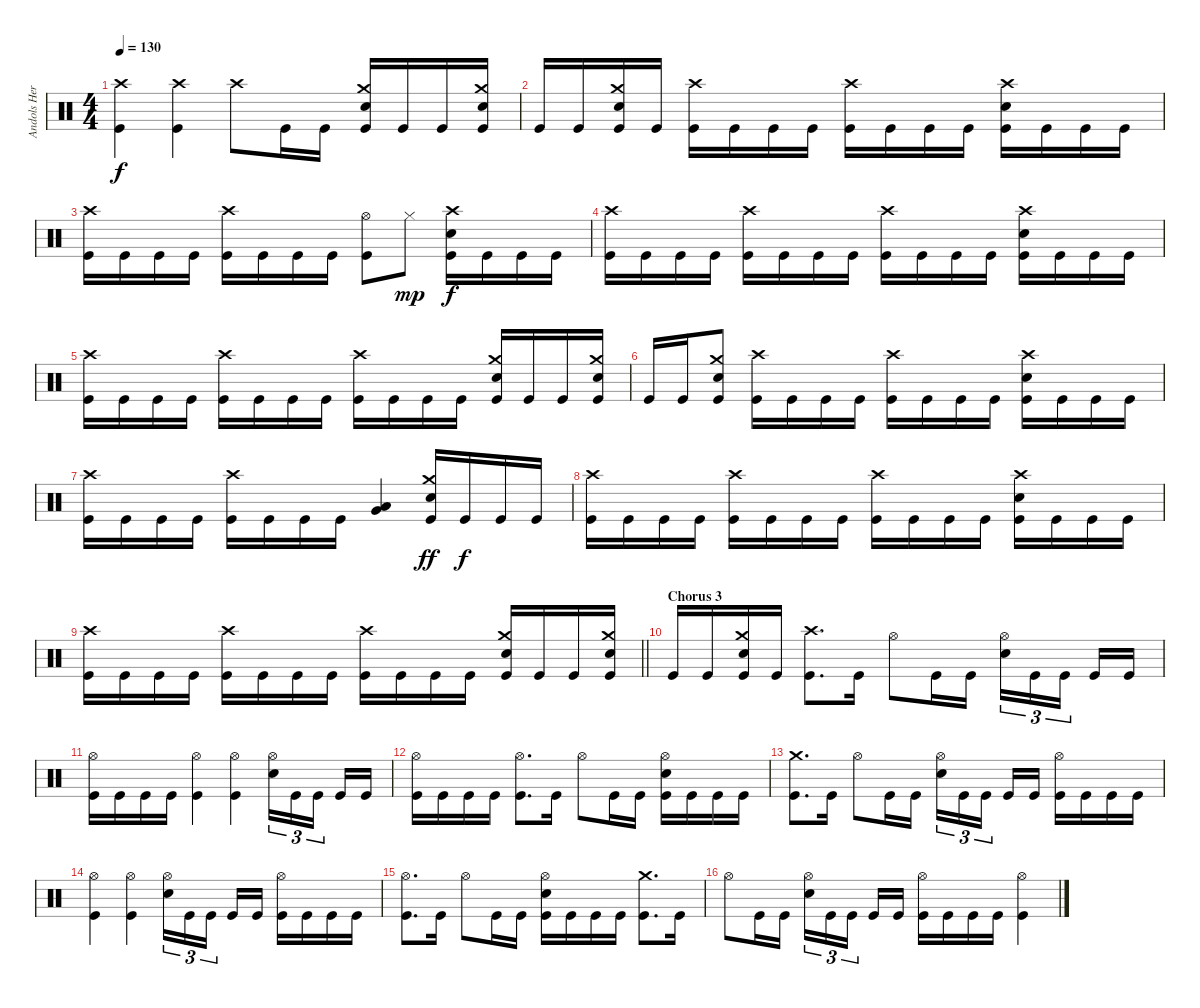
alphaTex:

\track ("Andols Herrick" "Andols Her") {instrument percussion}
\staff {score}
\articulation defaults
\ts (4 4)
\tempo 130
\clef neutral
\ks c
("Crash high (hit)" "Kick (hit)").4{dy f} ("Crash high (hit)" "Kick (hit)").4 "Crash high (hit)".8 "Kick (hit)".16 "Kick (hit)".16 ("Crash medium (hit)" "Electric Snare (hit)" "Kick (hit)").16 "Kick (hit)".16 "Kick (hit)".16 ("Crash medium (hit)" "Electric Snare (hit)" "Kick (hit)").16 |
"Kick (hit)".16 "Kick (hit)".16 ("Crash medium (hit)" "Electric Snare (hit)" "Kick (hit)").16 "Kick (hit)".16 ("Crash high (hit)" "Kick (hit)").16 "Kick (hit)".16 "Kick (hit)".16 "Kick (hit)".16 ("Crash high (hit)" "Kick (hit)").16 "Kick (hit)".16 "Kick (hit)".16 "Kick (hit)".16 ("Crash high (hit)" "Electric Snare (hit)" "Kick (hit)").16 "Kick (hit)".16 "Kick (hit)".16 "Kick (hit)".16 |
("Crash high (hit)" "Kick (hit)").16 "Kick (hit)".16 "Kick (hit)".16 "Kick (hit)".16 ("Crash high (hit)" "Kick (hit)").16 "Kick (hit)".16 "Kick (hit)".16 "Kick (hit)".16 ("Hi-Hat (open)" "Kick (hit)").8 "Hi-Hat (closed)".8{dy mp} ("Crash high (hit)" "Electric Snare (hit)" "Kick (hit)").16{dy f} "Kick (hit)".16 "Kick (hit)".16 "Kick (hit)".16 |
("Crash high (hit)" "Kick (hit)").16 "Kick (hit)".16 "Kick (hit)".16 "Kick (hit)".16 ("Crash high (hit)" "Kick (hit)").16 "Kick (hit)".16 "Kick (hit)".16 "Kick (hit)".16 ("Crash high (hit)" "Kick (hit)").16 "Kick (hit)".16 "Kick (hit)".16 "Kick (hit)".16 ("Crash high (hit)" "Electric Snare (hit)" "Kick (hit)").16 "Kick (hit)".16 "Kick (hit)".16 "Kick (hit)".16 |
("Crash high (hit)" "Kick (hit)").16 "Kick (hit)".16 "Kick (hit)".16 "Kick (hit)".16 ("Crash high (hit)" "Kick (hit)").16 "Kick (hit)".16 "Kick (hit)".16 "Kick (hit)".16 ("Crash high (hit)" "Kick (hit)").16 "Kick (hit)".16 "Kick (hit)".16 "Kick (hit)".16 ("Crash medium (hit)" "Electric Snare (hit)" "Kick (hit)").16 "Kick (hit)".16 "Kick (hit)".16 ("Crash medium (hit)" "Electric Snare (hit)" "Kick (hit)").16 |
"Kick (hit)".16 "Kick (hit)".16 ("Crash medium (hit)" "Electric Snare (hit)" "Kick (hit)").8 ("Crash high (hit)" "Kick (hit)").16 "Kick (hit)".16 "Kick (hit)".16 "Kick (hit)".16 ("Crash high (hit)" "Kick (hit)").16 "Kick (hit)".16 "Kick (hit)".16 "Kick (hit)".16 ("Crash high (hit)" "Electric Snare (hit)" "Kick (hit)").16 "Kick (hit)".16 "Kick (hit)".16 "Kick (hit)".16 |
("Crash high (hit)" "Kick (hit)").16 "Kick (hit)".16 "Kick (hit)".16 "Kick (hit)".16 ("Crash high (hit)" "Kick (hit)").16 "Kick (hit)".16 "Kick (hit)".16 "Kick (hit)".16 ("Very Low Tom (hit)" "Low Floor Tom (hit)").4 ("Crash medium (hit)" "Electric Snare (hit)" "Kick (hit)").16{dy ff} "Kick (hit)".16{dy f} "Kick (hit)".16 "Kick (hit)".16 |
("Crash high (hit)" "Kick (hit)").16 "Kick (hit)".16 "Kick (hit)".16 "Kick (hit)".16 ("Crash high (hit)" "Kick (hit)").16 "Kick (hit)".16 "Kick (hit)".16 "Kick (hit)".16 ("Crash high (hit)" "Kick (hit)").16 "Kick (hit)".16 "Kick (hit)".16 "Kick (hit)".16 ("Crash high (hit)" "Electric Snare (hit)" "Kick (hit)").16 "Kick (hit)".16 "Kick (hit)".16 "Kick (hit)".16 |
\barLineRight lightlight
("Crash high (hit)" "Kick (hit)").16 "Kick (hit)".16 "Kick (hit)".16 "Kick (hit)".16 ("Crash high (hit)" "Kick (hit)").16 "Kick (hit)".16 "Kick (hit)".16 "Kick (hit)".16 ("Crash high (hit)" "Kick (hit)").16 "Kick (hit)".16 "Kick (hit)".16 "Kick (hit)".16 ("Crash medium (hit)" "Electric Snare (hit)" "Kick (hit)").16 "Kick (hit)".16 "Kick (hit)".16 ("Crash medium (hit)" "Electric Snare (hit)" "Kick (hit)").16 |
\section ("" "Chorus 3")
"Kick (hit)".16 "Kick (hit)".16 ("Crash medium (hit)" "Electric Snare (hit)" "Kick (hit)").16 "Kick (hit)".16 ("Crash high (hit)" "Kick (hit)").8{d} "Kick (hit)".16 "Hi-Hat (open)".8 "Kick (hit)".16 "Kick (hit)".16 ("Hi-Hat (open)" "Electric Snare (hit)").16{tu (3 2)} "Kick (hit)".16{tu (3 2)} "Kick (hit)".16{tu (3 2) beam splitsecondary} "Kick (hit)".16 "Kick (hit)".16 |
("Hi-Hat (open)" "Kick (hit)").16 "Kick (hit)".16 "Kick (hit)".16 "Kick (hit)".16 ("Hi-Hat (open)" "Kick (hit)").4 ("Hi-Hat (open)" "Kick (hit)").4 ("Hi-Hat (open)" "Electric Snare (hit)").16{tu (3 2)} "Kick (hit)".16{tu (3 2)} "Kick (hit)".16{tu (3 2) beam splitsecondary} "Kick (hit)".16 "Kick (hit)".16 |
("Hi-Hat (open)" "Kick (hit)").16 "Kick (hit)".16 "Kick (hit)".16 "Kick (hit)".16 ("Hi-Hat (open)" "Kick (hit)").8{d} "Kick (hit)".16 "Hi-Hat (open)".8 "Kick (hit)".16 "Kick (hit)".16 ("Hi-Hat (open)" "Electric Snare (hit)" "Kick (hit)").16 "Kick (hit)".16 "Kick (hit)".16 "Kick (hit)".16 |
("Crash medium (hit)" "Kick (hit)").8{d} "Kick (hit)".16 "Hi-Hat (open)".8 "Kick (hit)".16 "Kick (hit)".16 ("Hi-Hat (open)" "Electric Snare (hit)").16{tu (3 2)} "Kick (hit)".16{tu (3 2)} "Kick (hit)".16{tu (3 2) beam splitsecondary} "Kick (hit)".16 "Kick (hit)".16 ("Hi-Hat (open)" "Kick (hit)").16 "Kick (hit)".16 "Kick (hit)".16 "Kick (hit)".16 |
("Hi-Hat (open)" "Kick (hit)").4 ("Hi-Hat (open)" "Kick (hit)").4 ("Hi-Hat (open)" "Electric Snare (hit)").16{tu (3 2)} "Kick (hit)".16{tu (3 2)} "Kick (hit)".16{tu (3 2) beam splitsecondary} "Kick (hit)".16 "Kick (hit)".16 ("Hi-Hat (open)" "Kick (hit)").16 "Kick (hit)".16 "Kick (hit)".16 "Kick (hit)".16 |
("Hi-Hat (open)" "Kick (hit)").8{d} "Kick (hit)".16 "Hi-Hat (open)".8 "Kick (hit)".16 "Kick (hit)".16 ("Hi-Hat (open)" "Electric Snare (hit)" "Kick (hit)").16 "Kick (hit)".16 "Kick (hit)".16 "Kick (hit)".16 ("Crash medium (hit)" "Kick (hit)").8{d} "Kick (hit)".16 |
"Hi-Hat (open)".8 "Kick (hit)".16 "Kick (hit)".16 ("Hi-Hat (open)" "Electric Snare (hit)").16{tu (3 2)} "Kick (hit)".16{tu (3 2)} "Kick (hit)".16{tu (3 2) beam splitsecondary} "Kick (hit)".16 "Kick (hit)".16 ("Hi-Hat (open)" "Kick (hit)").16 "Kick (hit)".16 "Kick (hit)".16 "Kick (hit)".16 ("Hi-Hat (open)" "Kick (hit)").4
